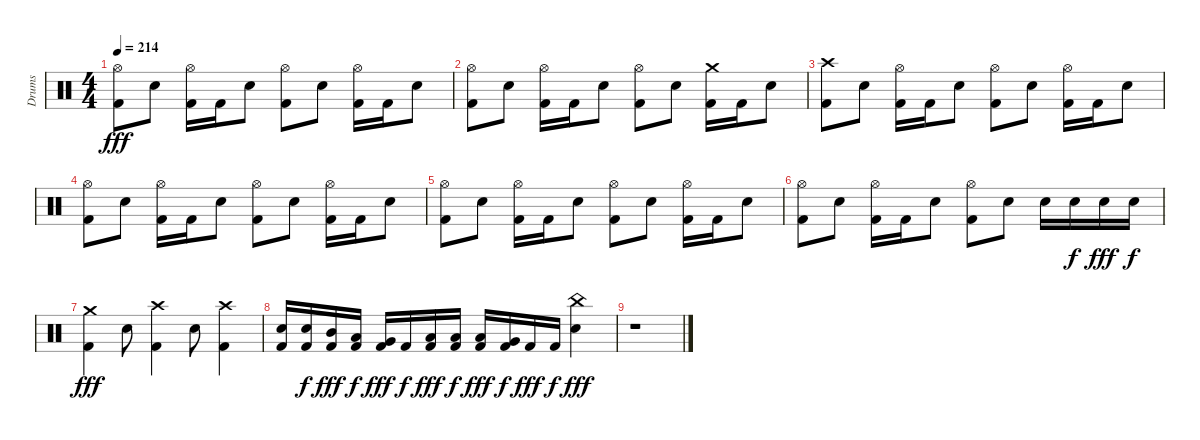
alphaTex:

\track ("Drums" "Drums") {instrument percussion}
\staff {score}
\articulation defaults
\ts (4 4)
\tempo 214
\clef neutral
\ks c
("Hi-Hat (open)" "Kick (hit) 2").8{dy fff} "Electric Snare (hit)".8 ("Hi-Hat (open)" "Kick (hit) 2").16 "Kick (hit) 2".16 "Electric Snare (hit)".8 ("Hi-Hat (open)" "Kick (hit) 2").8 "Electric Snare (hit)".8 ("Hi-Hat (open)" "Kick (hit) 2").16 "Kick (hit) 2".16 "Electric Snare (hit)".8 |
("Hi-Hat (open)" "Kick (hit) 2").8 "Electric Snare (hit)".8 ("Hi-Hat (open)" "Kick (hit) 2").16 "Kick (hit) 2".16 "Electric Snare (hit)".8 ("Hi-Hat (open)" "Kick (hit) 2").8 "Electric Snare (hit)".8 ("Crash medium (hit)" "Kick (hit) 2").16 "Kick (hit) 2".16 "Electric Snare (hit)".8 |
("Crash high (hit)" "Kick (hit) 2").8 "Electric Snare (hit)".8 ("Hi-Hat (open)" "Kick (hit) 2").16 "Kick (hit) 2".16 "Electric Snare (hit)".8 ("Hi-Hat (open)" "Kick (hit) 2").8 "Electric Snare (hit)".8 ("Hi-Hat (open)" "Kick (hit) 2").16 "Kick (hit) 2".16 "Electric Snare (hit)".8 |
("Hi-Hat (open)" "Kick (hit) 2").8 "Electric Snare (hit)".8 ("Hi-Hat (open)" "Kick (hit) 2").16 "Kick (hit) 2".16 "Electric Snare (hit)".8 ("Hi-Hat (open)" "Kick (hit) 2").8 "Electric Snare (hit)".8 ("Hi-Hat (open)" "Kick (hit) 2").16 "Kick (hit) 2".16 "Electric Snare (hit)".8 |
("Hi-Hat (open)" "Kick (hit) 2").8 "Electric Snare (hit)".8 ("Hi-Hat (open)" "Kick (hit) 2").16 "Kick (hit) 2".16 "Electric Snare (hit)".8 ("Hi-Hat (open)" "Kick (hit) 2").8 "Electric Snare (hit)".8 ("Hi-Hat (open)" "Kick (hit) 2").16 "Kick (hit) 2".16 "Electric Snare (hit)".8 |
("Hi-Hat (open)" "Kick (hit) 2").8 "Electric Snare (hit)".8 ("Hi-Hat (open)" "Kick (hit) 2").16 "Kick (hit) 2".16 "Electric Snare (hit)".8 ("Hi-Hat (open)" "Kick (hit) 2").8 "Electric Snare (hit)".8 "Electric Snare (hit)".16 "Electric Snare (hit)".16{dy f} "Electric Snare (hit)".16{dy fff} "Electric Snare (hit)".16{dy f} |
("Crash medium (hit)" "Kick (hit) 2").4{dy fff} "Electric Snare (hit)".8 ("Crash high (hit)" "Kick (hit) 2").4 "Electric Snare (hit)".8 ("Crash high (hit)" "Kick (hit) 2").4 |
("Electric Snare (hit)" "Kick (hit) 2").16 ("Electric Snare (hit)" "Kick (hit) 2").16{dy f} ("Mid Tom (hit)" "Kick (hit) 2").16{dy fff} ("Low Tom (hit)" "Kick (hit) 2").16{dy f} ("Very Low Tom (hit)" "Kick (hit) 2").16{dy fff} "Kick (hit) 2".16{dy f} ("Low Tom (hit)" "Kick (hit) 2").16{dy fff} ("Low Tom (hit)" "Kick (hit) 2").16{dy f} ("Low Tom (hit)" "Kick (hit) 2").16{dy fff} ("Very Low Tom (hit)" "Kick (hit) 2").16{dy f} "Kick (hit) 2".16{dy fff} "Kick (hit) 2".16{dy f} ("China (hit)" "Electric Snare (hit)").4{dy fff} |
r.1
